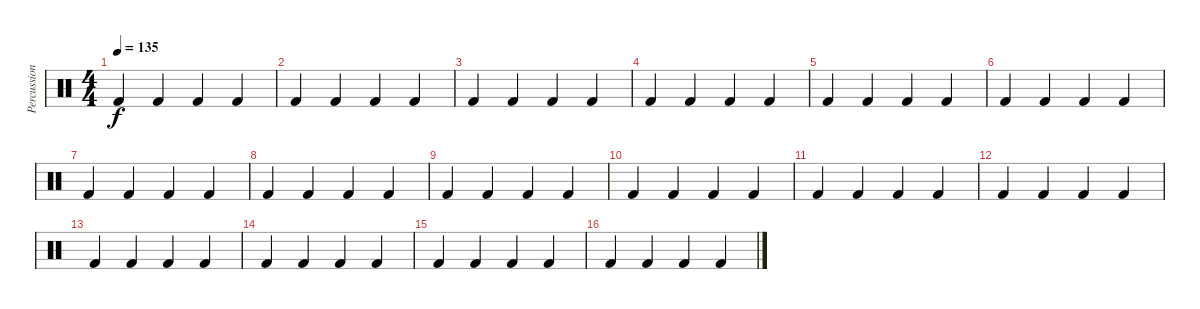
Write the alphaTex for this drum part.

\track ("Percussion" "Percussion") {instrument percussion}
\staff {score}
\articulation defaults
\ts (4 4)
\tempo 135
\clef neutral
\ks c "Kick (hit) 2".4{dy f} "Kick (hit) 2".4 "Kick (hit) 2".4 "Kick (hit) 2".4
|
"Kick (hit) 2".4 "Kick (hit) 2".4 "Kick (hit) 2".4 "Kick (hit) 2".4 |
"Kick (hit) 2".4 "Kick (hit) 2".4 "Kick (hit) 2".4 "Kick (hit) 2".4 |
"Kick (hit) 2".4 "Kick (hit) 2".4 "Kick (hit) 2".4 "Kick (hit) 2".4 |
"Kick (hit) 2".4 "Kick (hit) 2".4 "Kick (hit) 2".4 "Kick (hit) 2".4 |
"Kick (hit) 2".4 "Kick (hit) 2".4 "Kick (hit) 2".4 "Kick (hit) 2".4 |
"Kick (hit) 2".4 "Kick (hit) 2".4 "Kick (hit) 2".4 "Kick (hit) 2".4 |
"Kick (hit) 2".4 "Kick (hit) 2".4 "Kick (hit) 2".4 "Kick (hit) 2".4 |
"Kick (hit) 2".4 "Kick (hit) 2".4 "Kick (hit) 2".4 "Kick (hit) 2".4 |
"Kick (hit) 2".4 "Kick (hit) 2".4 "Kick (hit) 2".4 "Kick (hit) 2".4 |
"Kick (hit) 2".4 "Kick (hit) 2".4 "Kick (hit) 2".4 "Kick (hit) 2".4 |
"Kick (hit) 2".4 "Kick (hit) 2".4 "Kick (hit) 2".4 "Kick (hit) 2".4 |
"Kick (hit) 2".4 "Kick (hit) 2".4 "Kick (hit) 2".4 "Kick (hit) 2".4 |
"Kick (hit) 2".4 "Kick (hit) 2".4 "Kick (hit) 2".4 "Kick (hit) 2".4 |
"Kick (hit) 2".4 "Kick (hit) 2".4 "Kick (hit) 2".4 "Kick (hit) 2".4 |
"Kick (hit) 2".4 "Kick (hit) 2".4 "Kick (hit) 2".4 "Kick (hit) 2".4
